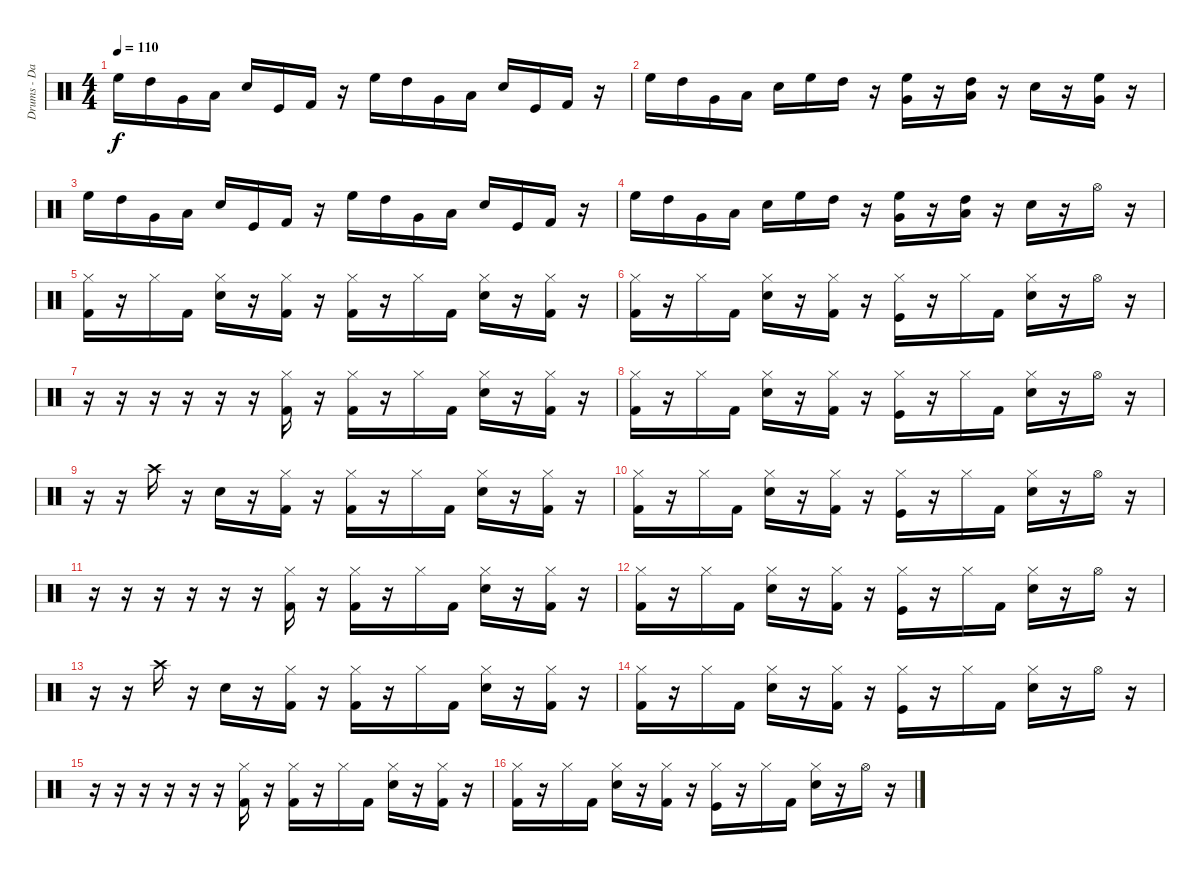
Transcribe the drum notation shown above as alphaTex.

\track ("Drums - David" "Drums - Da") {instrument percussion}
\staff {score}
\articulation defaults
\ts (4 4)
\tempo 110
\clef neutral
\ks c "High Floor Tom (hit)".16{dy f} "High Tom (hit)".16 "Very Low Tom (hit)".16 "Low Floor Tom (hit)".16 "Snare (hit) 2".16 "Kick (hit)".16 "Kick (hit) 2".16
r.16 "High Floor Tom (hit)".16 "High Tom (hit)".16 "Very Low Tom (hit)".16 "Low Floor Tom (hit)".16 "Snare (hit) 2".16 "Kick (hit)".16 "Kick (hit) 2".16 r.16 |
"High Floor Tom (hit)".16 "High Tom (hit)".16 "Very Low Tom (hit)".16 "Low Floor Tom (hit)".16 "Snare (hit) 2".16 "High Floor Tom (hit)".16 "High Tom (hit)".16 r.16 ("High Floor Tom (hit)" "Very Low Tom (hit)").16 r.16 ("High Tom (hit)" "Low Floor Tom (hit)").16 r.16 "Snare (hit) 2".16 r.16 ("High Floor Tom (hit)" "Very Low Tom (hit)").16 r.16 |
"High Floor Tom (hit)".16 "High Tom (hit)".16 "Very Low Tom (hit)".16 "Low Floor Tom (hit)".16 "Snare (hit) 2".16 "Kick (hit)".16 "Kick (hit) 2".16 r.16 "High Floor Tom (hit)".16 "High Tom (hit)".16 "Very Low Tom (hit)".16 "Low Floor Tom (hit)".16 "Snare (hit) 2".16 "Kick (hit)".16 "Kick (hit) 2".16 r.16 |
"High Floor Tom (hit)".16 "High Tom (hit)".16 "Very Low Tom (hit)".16 "Low Floor Tom (hit)".16 "Snare (hit) 2".16 "High Floor Tom (hit)".16 "High Tom (hit)".16 r.16 ("High Floor Tom (hit)" "Very Low Tom (hit)").16 r.16 ("High Tom (hit)" "Low Floor Tom (hit)").16 r.16 "Snare (hit) 2".16 r.16 "Hi-Hat (open)".16 r.16 |
("Hi-Hat (closed)" "Kick (hit) 2").16 r.16 "Hi-Hat (closed)".16 "Kick (hit) 2".16 ("Hi-Hat (closed)" "Snare (hit) 2").16 r.16 ("Hi-Hat (closed)" "Kick (hit) 2").16 r.16 ("Hi-Hat (closed)" "Kick (hit) 2").16 r.16 "Hi-Hat (closed)".16 "Kick (hit) 2".16 ("Hi-Hat (closed)" "Snare (hit) 2").16 r.16 ("Hi-Hat (closed)" "Kick (hit) 2").16 r.16 |
("Hi-Hat (closed)" "Kick (hit) 2").16 r.16 "Hi-Hat (closed)".16 "Kick (hit) 2".16 ("Hi-Hat (closed)" "Snare (hit) 2").16 r.16 ("Hi-Hat (closed)" "Kick (hit) 2").16 r.16 ("Hi-Hat (closed)" "Kick (hit)").16 r.16 "Hi-Hat (closed)".16 "Kick (hit) 2".16 ("Hi-Hat (closed)" "Snare (hit) 2").16 r.16 "Hi-Hat (open)".16 r.16 |
r.16 r.16 r.16 r.16 r.16 r.16 ("Hi-Hat (closed)" "Kick (hit) 2").16 r.16 ("Hi-Hat (closed)" "Kick (hit) 2").16 r.16 "Hi-Hat (closed)".16 "Kick (hit) 2".16 ("Hi-Hat (closed)" "Snare (hit) 2").16 r.16 ("Hi-Hat (closed)" "Kick (hit) 2").16 r.16 |
("Hi-Hat (closed)" "Kick (hit) 2").16 r.16 "Hi-Hat (closed)".16 "Kick (hit) 2".16 ("Hi-Hat (closed)" "Snare (hit) 2").16 r.16 ("Hi-Hat (closed)" "Kick (hit) 2").16 r.16 ("Hi-Hat (closed)" "Kick (hit)").16 r.16 "Hi-Hat (closed)".16 "Kick (hit) 2".16 ("Hi-Hat (closed)" "Snare (hit) 2").16 r.16 "Hi-Hat (open)".16 r.16 |
r.16 r.16 "Crash high (hit)".16 r.16 "Snare (hit) 2".16 r.16 ("Hi-Hat (closed)" "Kick (hit) 2").16 r.16 ("Hi-Hat (closed)" "Kick (hit) 2").16 r.16 "Hi-Hat (closed)".16 "Kick (hit) 2".16 ("Hi-Hat (closed)" "Snare (hit) 2").16 r.16 ("Hi-Hat (closed)" "Kick (hit) 2").16 r.16 |
("Hi-Hat (closed)" "Kick (hit) 2").16 r.16 "Hi-Hat (closed)".16 "Kick (hit) 2".16 ("Hi-Hat (closed)" "Snare (hit) 2").16 r.16 ("Hi-Hat (closed)" "Kick (hit) 2").16 r.16 ("Hi-Hat (closed)" "Kick (hit)").16 r.16 "Hi-Hat (closed)".16 "Kick (hit) 2".16 ("Hi-Hat (closed)" "Snare (hit) 2").16 r.16 "Hi-Hat (open)".16 r.16 |
r.16 r.16 r.16 r.16 r.16 r.16 ("Hi-Hat (closed)" "Kick (hit) 2").16 r.16 ("Hi-Hat (closed)" "Kick (hit) 2").16 r.16 "Hi-Hat (closed)".16 "Kick (hit) 2".16 ("Hi-Hat (closed)" "Snare (hit) 2").16 r.16 ("Hi-Hat (closed)" "Kick (hit) 2").16 r.16 |
("Hi-Hat (closed)" "Kick (hit) 2").16 r.16 "Hi-Hat (closed)".16 "Kick (hit) 2".16 ("Hi-Hat (closed)" "Snare (hit) 2").16 r.16 ("Hi-Hat (closed)" "Kick (hit) 2").16 r.16 ("Hi-Hat (closed)" "Kick (hit)").16 r.16 "Hi-Hat (closed)".16 "Kick (hit) 2".16 ("Hi-Hat (closed)" "Snare (hit) 2").16 r.16 "Hi-Hat (open)".16 r.16 |
r.16 r.16 "Crash high (hit)".16 r.16 "Snare (hit) 2".16 r.16 ("Hi-Hat (closed)" "Kick (hit) 2").16 r.16 ("Hi-Hat (closed)" "Kick (hit) 2").16 r.16 "Hi-Hat (closed)".16 "Kick (hit) 2".16 ("Hi-Hat (closed)" "Snare (hit) 2").16 r.16 ("Hi-Hat (closed)" "Kick (hit) 2").16 r.16 |
("Hi-Hat (closed)" "Kick (hit) 2").16 r.16 "Hi-Hat (closed)".16 "Kick (hit) 2".16 ("Hi-Hat (closed)" "Snare (hit) 2").16 r.16 ("Hi-Hat (closed)" "Kick (hit) 2").16 r.16 ("Hi-Hat (closed)" "Kick (hit)").16 r.16 "Hi-Hat (closed)".16 "Kick (hit) 2".16 ("Hi-Hat (closed)" "Snare (hit) 2").16 r.16 "Hi-Hat (open)".16 r.16 |
r.16 r.16 r.16 r.16 r.16 r.16 ("Hi-Hat (closed)" "Kick (hit) 2").16 r.16 ("Hi-Hat (closed)" "Kick (hit) 2").16 r.16 "Hi-Hat (closed)".16 "Kick (hit) 2".16 ("Hi-Hat (closed)" "Snare (hit) 2").16 r.16 ("Hi-Hat (closed)" "Kick (hit) 2").16 r.16 |
("Hi-Hat (closed)" "Kick (hit) 2").16 r.16 "Hi-Hat (closed)".16 "Kick (hit) 2".16 ("Hi-Hat (closed)" "Snare (hit) 2").16 r.16 ("Hi-Hat (closed)" "Kick (hit) 2").16 r.16 ("Hi-Hat (closed)" "Kick (hit)").16 r.16 "Hi-Hat (closed)".16 "Kick (hit) 2".16 ("Hi-Hat (closed)" "Snare (hit) 2").16 r.16 "Hi-Hat (open)".16 r.16
